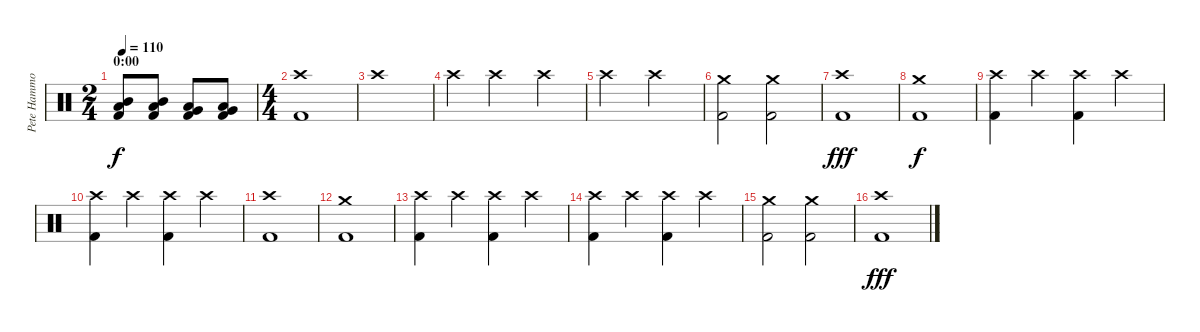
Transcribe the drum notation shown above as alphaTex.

\track ("Pete Hammoura" "Pete Hammo") {instrument percussion}
\staff {score}
\articulation defaults
\ts (2 4)
\section ("" "0:00")
\tempo 110
\clef neutral
\ks c
("Mid Tom (hit)" "Low Tom (hit)" "Kick (hit) 2").8{dy f} ("Mid Tom (hit)" "Low Tom (hit)" "Kick (hit) 2").8 ("Low Tom (hit)" "Very Low Tom (hit)" "Kick (hit) 2").8 ("Low Floor Tom (hit)" "Very Low Tom (hit)" "Kick (hit) 2").8 |
\ts (4 4)
("Crash high (hit)" "Kick (hit) 2").1 |
"Crash high (hit)".1 |
"Crash high (hit)".4 "Crash high (hit)".2 "Crash high (hit)".4 |
"Crash high (hit)".2 "Crash high (hit)".2 |
("Crash medium (hit)" "Kick (hit) 2").2 ("Crash medium (hit)" "Kick (hit) 2").2 |
("Crash high (hit)" "Kick (hit) 2").1{dy fff} |
("Crash medium (hit)" "Kick (hit) 2").1{dy f} |
("Crash high (hit)" "Kick (hit) 2").4 "Crash high (hit)".4 ("Crash high (hit)" "Kick (hit) 2").4 "Crash high (hit)".4 |
("Crash high (hit)" "Kick (hit) 2").4 "Crash high (hit)".4 ("Crash high (hit)" "Kick (hit) 2").4 "Crash high (hit)".4 |
("Crash high (hit)" "Kick (hit) 2").1 |
("Crash medium (hit)" "Kick (hit) 2").1 |
("Crash high (hit)" "Kick (hit) 2").4 "Crash high (hit)".4 ("Crash high (hit)" "Kick (hit) 2").4 "Crash high (hit)".4 |
("Crash high (hit)" "Kick (hit) 2").4 "Crash high (hit)".4 ("Crash high (hit)" "Kick (hit) 2").4 "Crash high (hit)".4 |
("Crash medium (hit)" "Kick (hit) 2").2 ("Crash medium (hit)" "Kick (hit) 2").2 |
("Crash high (hit)" "Kick (hit) 2").1{dy fff}
